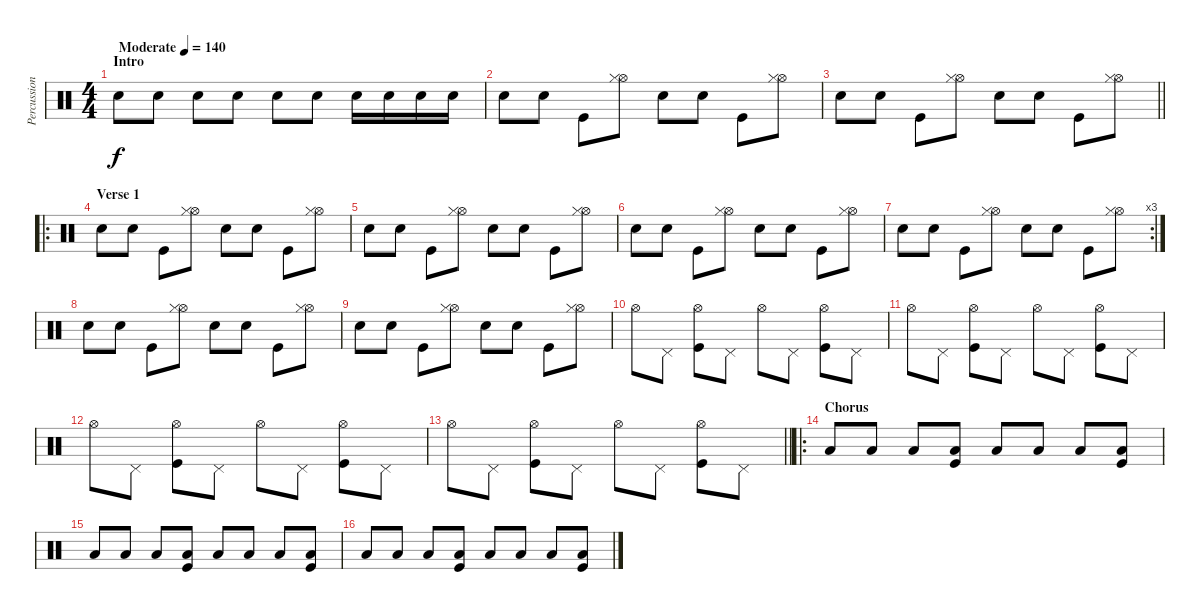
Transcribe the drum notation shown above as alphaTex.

\track ("Percussion" "Percussion") {instrument percussion}
\staff {score}
\articulation defaults
\ts (4 4)
\section ("" "Intro")
\tempo (140 "Moderate")
\clef neutral
\ks c "Snare (hit) 2".8{dy f} "Snare (hit) 2".8 "Snare (hit) 2".8 "Snare (hit) 2".8 "Snare (hit) 2".8 "Snare (hit) 2".8 "Snare (hit) 2".16 "Snare (hit) 2".16 "Snare (hit) 2".16 "Snare (hit) 2".16
|
"Snare (hit) 2".8 "Snare (hit) 2".8 "Kick (hit)".8 ("Hi-Hat (open)" "Hi-Hat (closed)").8 "Snare (hit) 2".8 "Snare (hit) 2".8 "Kick (hit)".8 ("Hi-Hat (open)" "Hi-Hat (closed)").8 |
\barLineRight lightlight "Snare (hit) 2".8 "Snare (hit) 2".8 "Kick (hit)".8
("Hi-Hat (open)" "Hi-Hat (closed)").8 "Snare (hit) 2".8 "Snare (hit) 2".8 "Kick (hit)".8 ("Hi-Hat (open)" "Hi-Hat (closed)").8 |
\ro
\section ("" "Verse 1")
"Snare (hit) 2".8 "Snare (hit) 2".8 "Kick (hit)".8 ("Hi-Hat (open)" "Hi-Hat (closed)").8 "Snare (hit) 2".8 "Snare (hit) 2".8 "Kick (hit)".8 ("Hi-Hat (open)" "Hi-Hat (closed)").8 |
"Snare (hit) 2".8 "Snare (hit) 2".8 "Kick (hit)".8 ("Hi-Hat (open)" "Hi-Hat (closed)").8 "Snare (hit) 2".8 "Snare (hit) 2".8 "Kick (hit)".8 ("Hi-Hat (open)" "Hi-Hat (closed)").8 |
"Snare (hit) 2".8 "Snare (hit) 2".8 "Kick (hit)".8 ("Hi-Hat (open)" "Hi-Hat (closed)").8 "Snare (hit) 2".8 "Snare (hit) 2".8 "Kick (hit)".8 ("Hi-Hat (open)" "Hi-Hat (closed)").8 |
\rc 3 "Snare (hit) 2".8 "Snare (hit) 2".8 "Kick (hit)".8
("Hi-Hat (open)" "Hi-Hat (closed)").8 "Snare (hit) 2".8 "Snare (hit) 2".8 "Kick (hit)".8 ("Hi-Hat (open)" "Hi-Hat (closed)").8 |
"Snare (hit) 2".8 "Snare (hit) 2".8 "Kick (hit)".8 ("Hi-Hat (open)" "Hi-Hat (closed)").8 "Snare (hit) 2".8 "Snare (hit) 2".8 "Kick (hit)".8 ("Hi-Hat (open)" "Hi-Hat (closed)").8 |
"Snare (hit) 2".8 "Snare (hit) 2".8 "Kick (hit)".8 ("Hi-Hat (open)" "Hi-Hat (closed)").8 "Snare (hit) 2".8 "Snare (hit) 2".8 "Kick (hit)".8 ("Hi-Hat (open)" "Hi-Hat (closed)").8 |
"Hi-Hat (open)".8 "Pedal Hi-Hat (hit)".8 ("Hi-Hat (open)" "Kick (hit)").8 "Pedal Hi-Hat (hit)".8 "Hi-Hat (open)".8 "Pedal Hi-Hat (hit)".8 ("Hi-Hat (open)" "Kick (hit)").8 "Pedal Hi-Hat (hit)".8 |
"Hi-Hat (open)".8 "Pedal Hi-Hat (hit)".8 ("Hi-Hat (open)" "Kick (hit)").8 "Pedal Hi-Hat (hit)".8 "Hi-Hat (open)".8 "Pedal Hi-Hat (hit)".8 ("Hi-Hat (open)" "Kick (hit)").8 "Pedal Hi-Hat (hit)".8 |
"Hi-Hat (open)".8 "Pedal Hi-Hat (hit)".8 ("Hi-Hat (open)" "Kick (hit)").8 "Pedal Hi-Hat (hit)".8 "Hi-Hat (open)".8 "Pedal Hi-Hat (hit)".8 ("Hi-Hat (open)" "Kick (hit)").8 "Pedal Hi-Hat (hit)".8 |
\barLineRight lightlight "Hi-Hat (open)".8 "Pedal Hi-Hat (hit)".8
("Hi-Hat (open)" "Kick (hit)").8 "Pedal Hi-Hat (hit)".8 "Hi-Hat (open)".8 "Pedal Hi-Hat (hit)".8 ("Hi-Hat (open)" "Kick (hit)").8 "Pedal Hi-Hat (hit)".8 |
\ro
\section ("" "Chorus")
"Low Tom (hit)".8 "Low Tom (hit)".8 "Low Tom (hit)".8 ("Low Tom (hit)" "Kick (hit)").8 "Low Tom (hit)".8 "Low Tom (hit)".8 "Low Tom (hit)".8 ("Low Tom (hit)" "Kick (hit)").8 |
"Low Tom (hit)".8 "Low Tom (hit)".8 "Low Tom (hit)".8 ("Low Tom (hit)" "Kick (hit)").8 "Low Tom (hit)".8 "Low Tom (hit)".8 "Low Tom (hit)".8 ("Low Tom (hit)" "Kick (hit)").8 |
"Low Tom (hit)".8 "Low Tom (hit)".8 "Low Tom (hit)".8 ("Low Tom (hit)" "Kick (hit)").8 "Low Tom (hit)".8 "Low Tom (hit)".8 "Low Tom (hit)".8 ("Low Tom (hit)" "Kick (hit)").8
